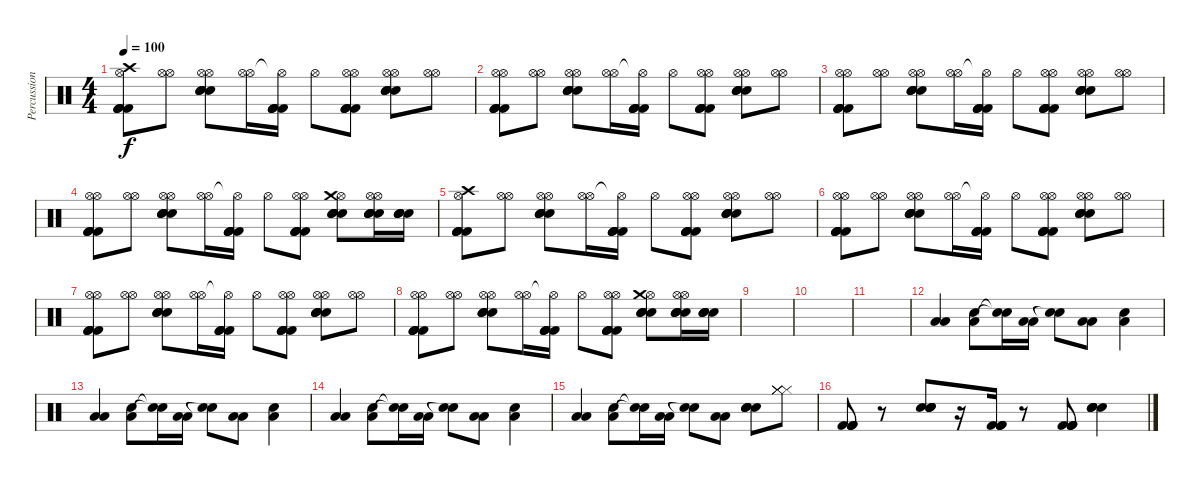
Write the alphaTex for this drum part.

\track ("Percussion" "Percussion") {instrument percussion}
\staff {score}
\articulation defaults
\ts (4 4)
\tempo 100
\clef neutral
\ks c
("Hi-Hat (open)" "Kick (hit) 2" "Kick (hit) 2" "Kick (hit) 2" "Kick (hit) 2" "Crash high (hit)").8{dy f} ("Hi-Hat (open)" "Hi-Hat (open)").8 ("Hi-Hat (open)" "Electric Snare (hit)" "Electric Snare (hit)" "Electric Snare (hit)" "Electric Snare (hit)" "Hi-Hat (open)").8 ("Hi-Hat (open)" "Hi-Hat (open)").16 ("Hi-Hat (open)"{t} "Kick (hit) 2" "Kick (hit) 2" "Kick (hit) 2" "Kick (hit) 2").16 "Hi-Hat (open)".8 ("Hi-Hat (open)" "Kick (hit) 2" "Kick (hit) 2" "Kick (hit) 2" "Kick (hit) 2" "Hi-Hat (open)").8 ("Hi-Hat (open)" "Electric Snare (hit)" "Electric Snare (hit)" "Electric Snare (hit)" "Electric Snare (hit)" "Hi-Hat (open)").8 ("Hi-Hat (open)" "Hi-Hat (open)").8 |
("Hi-Hat (open)" "Kick (hit) 2" "Kick (hit) 2" "Kick (hit) 2" "Kick (hit) 2" "Hi-Hat (open)").8 ("Hi-Hat (open)" "Hi-Hat (open)").8 ("Hi-Hat (open)" "Electric Snare (hit)" "Electric Snare (hit)" "Electric Snare (hit)" "Electric Snare (hit)" "Hi-Hat (open)").8 ("Hi-Hat (open)" "Hi-Hat (open)").16 ("Hi-Hat (open)"{t} "Kick (hit) 2" "Kick (hit) 2" "Kick (hit) 2" "Kick (hit) 2").16 "Hi-Hat (open)".8 ("Hi-Hat (open)" "Kick (hit) 2" "Kick (hit) 2" "Kick (hit) 2" "Kick (hit) 2" "Hi-Hat (open)").8 ("Hi-Hat (open)" "Electric Snare (hit)" "Electric Snare (hit)" "Electric Snare (hit)" "Electric Snare (hit)" "Hi-Hat (open)").8 ("Hi-Hat (open)" "Hi-Hat (open)").8 |
("Hi-Hat (open)" "Kick (hit) 2" "Kick (hit) 2" "Kick (hit) 2" "Kick (hit) 2" "Hi-Hat (open)").8 ("Hi-Hat (open)" "Hi-Hat (open)").8 ("Hi-Hat (open)" "Electric Snare (hit)" "Electric Snare (hit)" "Electric Snare (hit)" "Electric Snare (hit)" "Hi-Hat (open)").8 ("Hi-Hat (open)" "Hi-Hat (open)").16 ("Hi-Hat (open)"{t} "Kick (hit) 2" "Kick (hit) 2" "Kick (hit) 2" "Kick (hit) 2").16 "Hi-Hat (open)".8 ("Hi-Hat (open)" "Kick (hit) 2" "Kick (hit) 2" "Kick (hit) 2" "Kick (hit) 2" "Hi-Hat (open)").8 ("Hi-Hat (open)" "Electric Snare (hit)" "Electric Snare (hit)" "Electric Snare (hit)" "Electric Snare (hit)" "Hi-Hat (open)").8 ("Hi-Hat (open)" "Hi-Hat (open)").8 |
("Hi-Hat (open)" "Kick (hit) 2" "Kick (hit) 2" "Kick (hit) 2" "Kick (hit) 2" "Hi-Hat (open)").8 ("Hi-Hat (open)" "Hi-Hat (open)").8 ("Hi-Hat (open)" "Electric Snare (hit)" "Electric Snare (hit)" "Electric Snare (hit)" "Electric Snare (hit)" "Hi-Hat (open)").8 ("Hi-Hat (open)" "Hi-Hat (open)").16 ("Hi-Hat (open)"{t} "Kick (hit) 2" "Kick (hit) 2" "Kick (hit) 2" "Kick (hit) 2").16 "Hi-Hat (open)".8 ("Hi-Hat (open)" "Kick (hit) 2" "Kick (hit) 2" "Kick (hit) 2" "Kick (hit) 2" "Hi-Hat (open)").8 ("Hi-Hat (open)" "Electric Snare (hit)" "Electric Snare (hit)" "Electric Snare (hit)" "Electric Snare (hit)" "Crash medium (hit)").8 ("Hi-Hat (open)" "Electric Snare (hit)" "Electric Snare (hit)" "Electric Snare (hit)" "Electric Snare (hit)" "Hi-Hat (open)").16 ("Electric Snare (hit)" "Electric Snare (hit)" "Electric Snare (hit)" "Electric Snare (hit)").16 |
("Hi-Hat (open)" "Kick (hit) 2" "Kick (hit) 2" "Kick (hit) 2" "Kick (hit) 2" "Crash high (hit)").8 ("Hi-Hat (open)" "Hi-Hat (open)").8 ("Hi-Hat (open)" "Electric Snare (hit)" "Electric Snare (hit)" "Electric Snare (hit)" "Electric Snare (hit)" "Hi-Hat (open)").8 ("Hi-Hat (open)" "Hi-Hat (open)").16 ("Hi-Hat (open)"{t} "Kick (hit) 2" "Kick (hit) 2" "Kick (hit) 2" "Kick (hit) 2").16 "Hi-Hat (open)".8 ("Hi-Hat (open)" "Kick (hit) 2" "Kick (hit) 2" "Kick (hit) 2" "Kick (hit) 2" "Hi-Hat (open)").8 ("Hi-Hat (open)" "Electric Snare (hit)" "Electric Snare (hit)" "Electric Snare (hit)" "Electric Snare (hit)" "Hi-Hat (open)").8 ("Hi-Hat (open)" "Hi-Hat (open)").8 |
("Hi-Hat (open)" "Kick (hit) 2" "Kick (hit) 2" "Kick (hit) 2" "Kick (hit) 2" "Hi-Hat (open)").8 ("Hi-Hat (open)" "Hi-Hat (open)").8 ("Hi-Hat (open)" "Electric Snare (hit)" "Electric Snare (hit)" "Electric Snare (hit)" "Electric Snare (hit)" "Hi-Hat (open)").8 ("Hi-Hat (open)" "Hi-Hat (open)").16 ("Hi-Hat (open)"{t} "Kick (hit) 2" "Kick (hit) 2" "Kick (hit) 2" "Kick (hit) 2").16 "Hi-Hat (open)".8 ("Hi-Hat (open)" "Kick (hit) 2" "Kick (hit) 2" "Kick (hit) 2" "Kick (hit) 2" "Hi-Hat (open)").8 ("Hi-Hat (open)" "Electric Snare (hit)" "Electric Snare (hit)" "Electric Snare (hit)" "Electric Snare (hit)" "Hi-Hat (open)").8 ("Hi-Hat (open)" "Hi-Hat (open)").8 |
("Hi-Hat (open)" "Kick (hit) 2" "Kick (hit) 2" "Kick (hit) 2" "Kick (hit) 2" "Hi-Hat (open)").8 ("Hi-Hat (open)" "Hi-Hat (open)").8 ("Hi-Hat (open)" "Electric Snare (hit)" "Electric Snare (hit)" "Electric Snare (hit)" "Electric Snare (hit)" "Hi-Hat (open)").8 ("Hi-Hat (open)" "Hi-Hat (open)").16 ("Hi-Hat (open)"{t} "Kick (hit) 2" "Kick (hit) 2" "Kick (hit) 2" "Kick (hit) 2").16 "Hi-Hat (open)".8 ("Hi-Hat (open)" "Kick (hit) 2" "Kick (hit) 2" "Kick (hit) 2" "Kick (hit) 2" "Hi-Hat (open)").8 ("Hi-Hat (open)" "Electric Snare (hit)" "Electric Snare (hit)" "Electric Snare (hit)" "Electric Snare (hit)" "Hi-Hat (open)").8 ("Hi-Hat (open)" "Hi-Hat (open)").8 |
("Hi-Hat (open)" "Kick (hit) 2" "Kick (hit) 2" "Kick (hit) 2" "Kick (hit) 2" "Hi-Hat (open)").8 ("Hi-Hat (open)" "Hi-Hat (open)").8 ("Hi-Hat (open)" "Electric Snare (hit)" "Electric Snare (hit)" "Electric Snare (hit)" "Electric Snare (hit)" "Hi-Hat (open)").8 ("Hi-Hat (open)" "Hi-Hat (open)").16 ("Hi-Hat (open)"{t} "Kick (hit) 2" "Kick (hit) 2" "Kick (hit) 2" "Kick (hit) 2").16 "Hi-Hat (open)".8 ("Hi-Hat (open)" "Kick (hit) 2" "Kick (hit) 2" "Kick (hit) 2" "Kick (hit) 2" "Hi-Hat (open)").8 ("Hi-Hat (open)" "Electric Snare (hit)" "Electric Snare (hit)" "Electric Snare (hit)" "Electric Snare (hit)" "Crash medium (hit)").8 ("Hi-Hat (open)" "Electric Snare (hit)" "Electric Snare (hit)" "Electric Snare (hit)" "Electric Snare (hit)" "Hi-Hat (open)").16 ("Electric Snare (hit)" "Electric Snare (hit)" "Electric Snare (hit)" "Electric Snare (hit)").16 |
|
|
|
("Low Floor Tom (hit)" "Low Floor Tom (hit)").4 ("Low Tom (hit)" "Electric Snare (hit)").8 ("Snare (hit)"{t} "Snare (hit)"{t}).16 ("Low Floor Tom (hit)" "Low Floor Tom (hit)").16 ("Snare (hit)"{t} "Snare (hit)"{t}).8 ("Low Floor Tom (hit)" "Low Floor Tom (hit)").8 ("Low Tom (hit)" "Electric Snare (hit)").4 |
("Low Floor Tom (hit)" "Low Floor Tom (hit)").4 ("Low Tom (hit)" "Electric Snare (hit)").8 ("Snare (hit)"{t} "Snare (hit)"{t}).16 ("Low Floor Tom (hit)" "Low Floor Tom (hit)").16 ("Snare (hit)"{t} "Snare (hit)"{t}).8 ("Low Floor Tom (hit)" "Low Floor Tom (hit)").8 ("Low Tom (hit)" "Electric Snare (hit)").4 |
("Low Floor Tom (hit)" "Low Floor Tom (hit)").4 ("Low Tom (hit)" "Electric Snare (hit)").8 ("Snare (hit)"{t} "Snare (hit)"{t}).16 ("Low Floor Tom (hit)" "Low Floor Tom (hit)").16 ("Snare (hit)"{t} "Snare (hit)"{t}).8 ("Low Floor Tom (hit)" "Low Floor Tom (hit)").8 ("Low Tom (hit)" "Electric Snare (hit)").4 |
("Low Floor Tom (hit)" "Low Floor Tom (hit)").4 ("Low Tom (hit)" "Electric Snare (hit)").8 ("Snare (hit)"{t} "Snare (hit)"{t}).16 ("Low Floor Tom (hit)" "Low Floor Tom (hit)").16 ("Snare (hit)"{t} "Snare (hit)"{t}).8 ("Low Floor Tom (hit)" "Low Floor Tom (hit)").8 ("Electric Snare (hit)" "Electric Snare (hit)" "Electric Snare (hit)" "Electric Snare (hit)").8 ("Hi-Hat (closed)" "Hi-Hat (closed)" "Hi-Hat (closed)" "Hi-Hat (closed)").8 |
("Kick (hit) 2" "Kick (hit) 2" "Kick (hit) 2" "Kick (hit) 2").8 r.8 ("Electric Snare (hit)" "Electric Snare (hit)" "Electric Snare (hit)" "Electric Snare (hit)").8 r.16 ("Kick (hit) 2" "Kick (hit) 2" "Kick (hit) 2" "Kick (hit) 2").16 r.8 ("Kick (hit) 2" "Kick (hit) 2" "Kick (hit) 2" "Kick (hit) 2").8 ("Electric Snare (hit)" "Electric Snare (hit)" "Electric Snare (hit)" "Electric Snare (hit)").4
